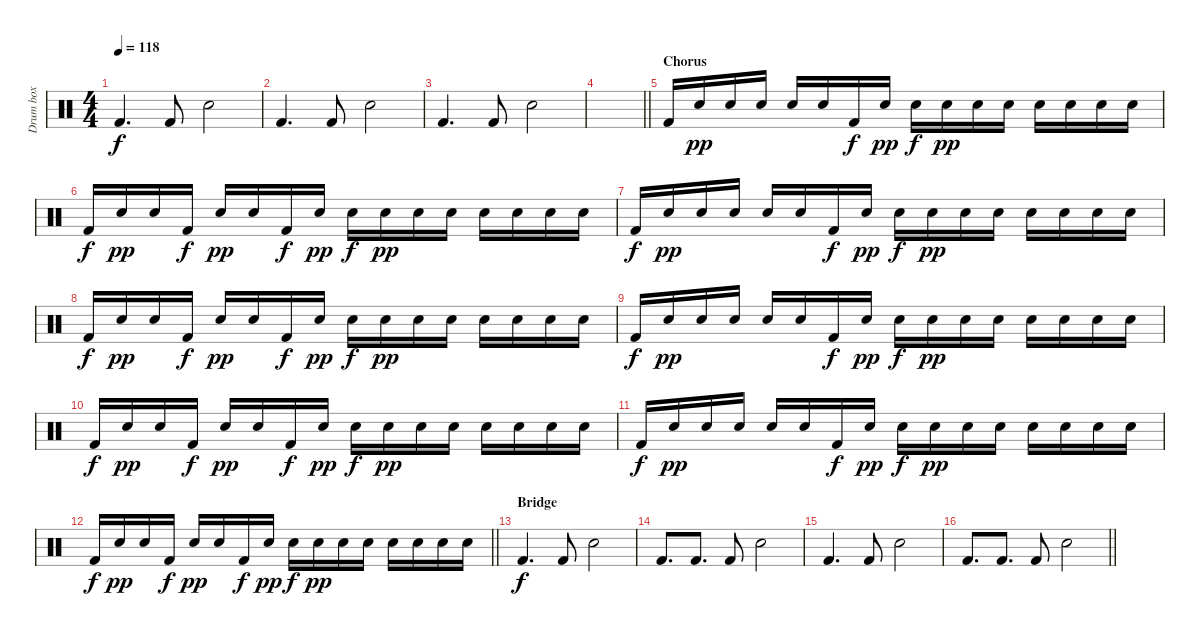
\track ("Drum box" "Drum box") {instrument percussion}
\staff {score}
\articulation defaults
\ts (4 4)
\tempo 118
\clef neutral
\ks c "Kick (hit) 2".4{d dy f} "Kick (hit) 2".8 "Snare (hit) 2".2
|
"Kick (hit) 2".4{d} "Kick (hit) 2".8 "Snare (hit) 2".2 |
"Kick (hit) 2".4{d} "Kick (hit) 2".8 "Snare (hit) 2".2 |
\barLineRight lightlight
|
\section ("" "Chorus")
"Kick (hit) 2".16 "Snare (hit) 2".16{dy pp} "Snare (hit) 2".16 "Snare (hit) 2".16 "Snare (hit) 2".16 "Snare (hit) 2".16 "Kick (hit) 2".16{dy f} "Snare (hit) 2".16{dy pp} "Snare (hit) 2".16{dy f} "Snare (hit) 2".16{dy pp} "Snare (hit) 2".16 "Snare (hit) 2".16 "Snare (hit) 2".16 "Snare (hit) 2".16 "Snare (hit) 2".16 "Snare (hit) 2".16 |
"Kick (hit) 2".16{dy f} "Snare (hit) 2".16{dy pp} "Snare (hit) 2".16 "Kick (hit) 2".16{dy f} "Snare (hit) 2".16{dy pp} "Snare (hit) 2".16 "Kick (hit) 2".16{dy f} "Snare (hit) 2".16{dy pp} "Snare (hit) 2".16{dy f} "Snare (hit) 2".16{dy pp} "Snare (hit) 2".16 "Snare (hit) 2".16 "Snare (hit) 2".16 "Snare (hit) 2".16 "Snare (hit) 2".16 "Snare (hit) 2".16 |
"Kick (hit) 2".16{dy f} "Snare (hit) 2".16{dy pp} "Snare (hit) 2".16 "Snare (hit) 2".16 "Snare (hit) 2".16 "Snare (hit) 2".16 "Kick (hit) 2".16{dy f} "Snare (hit) 2".16{dy pp} "Snare (hit) 2".16{dy f} "Snare (hit) 2".16{dy pp} "Snare (hit) 2".16 "Snare (hit) 2".16 "Snare (hit) 2".16 "Snare (hit) 2".16 "Snare (hit) 2".16 "Snare (hit) 2".16 |
"Kick (hit) 2".16{dy f} "Snare (hit) 2".16{dy pp} "Snare (hit) 2".16 "Kick (hit) 2".16{dy f} "Snare (hit) 2".16{dy pp} "Snare (hit) 2".16 "Kick (hit) 2".16{dy f} "Snare (hit) 2".16{dy pp} "Snare (hit) 2".16{dy f} "Snare (hit) 2".16{dy pp} "Snare (hit) 2".16 "Snare (hit) 2".16 "Snare (hit) 2".16 "Snare (hit) 2".16 "Snare (hit) 2".16 "Snare (hit) 2".16 |
"Kick (hit) 2".16{dy f} "Snare (hit) 2".16{dy pp} "Snare (hit) 2".16 "Snare (hit) 2".16 "Snare (hit) 2".16 "Snare (hit) 2".16 "Kick (hit) 2".16{dy f} "Snare (hit) 2".16{dy pp} "Snare (hit) 2".16{dy f} "Snare (hit) 2".16{dy pp} "Snare (hit) 2".16 "Snare (hit) 2".16 "Snare (hit) 2".16 "Snare (hit) 2".16 "Snare (hit) 2".16 "Snare (hit) 2".16 |
"Kick (hit) 2".16{dy f} "Snare (hit) 2".16{dy pp} "Snare (hit) 2".16 "Kick (hit) 2".16{dy f} "Snare (hit) 2".16{dy pp} "Snare (hit) 2".16 "Kick (hit) 2".16{dy f} "Snare (hit) 2".16{dy pp} "Snare (hit) 2".16{dy f} "Snare (hit) 2".16{dy pp} "Snare (hit) 2".16 "Snare (hit) 2".16 "Snare (hit) 2".16 "Snare (hit) 2".16 "Snare (hit) 2".16 "Snare (hit) 2".16 |
"Kick (hit) 2".16{dy f} "Snare (hit) 2".16{dy pp} "Snare (hit) 2".16 "Snare (hit) 2".16 "Snare (hit) 2".16 "Snare (hit) 2".16 "Kick (hit) 2".16{dy f} "Snare (hit) 2".16{dy pp} "Snare (hit) 2".16{dy f} "Snare (hit) 2".16{dy pp} "Snare (hit) 2".16 "Snare (hit) 2".16 "Snare (hit) 2".16 "Snare (hit) 2".16 "Snare (hit) 2".16 "Snare (hit) 2".16 |
\barLineRight lightlight "Kick (hit) 2".16{dy f} "Snare (hit) 2".16{dy pp} "Snare (hit) 2".16 "Kick (hit) 2".16{dy f} "Snare (hit) 2".16{dy pp} "Snare (hit) 2".16 "Kick (hit) 2".16{dy f} "Snare (hit) 2".16{dy pp} "Snare (hit) 2".16{dy f} "Snare (hit) 2".16{dy pp} "Snare (hit) 2".16 "Snare (hit) 2".16 "Snare (hit) 2".16 "Snare (hit) 2".16 "Snare (hit) 2".16 "Snare (hit) 2".16
|
\section ("" "Bridge")
"Kick (hit) 2".4{d dy f} "Kick (hit) 2".8 "Snare (hit) 2".2 |
"Kick (hit) 2".8{d} "Kick (hit) 2".8{d} "Kick (hit) 2".8 "Snare (hit) 2".2 |
"Kick (hit) 2".4{d} "Kick (hit) 2".8 "Snare (hit) 2".2 |
\barLineRight lightlight "Kick (hit) 2".8{d} "Kick (hit) 2".8{d} "Kick (hit) 2".8 "Snare (hit) 2".2
